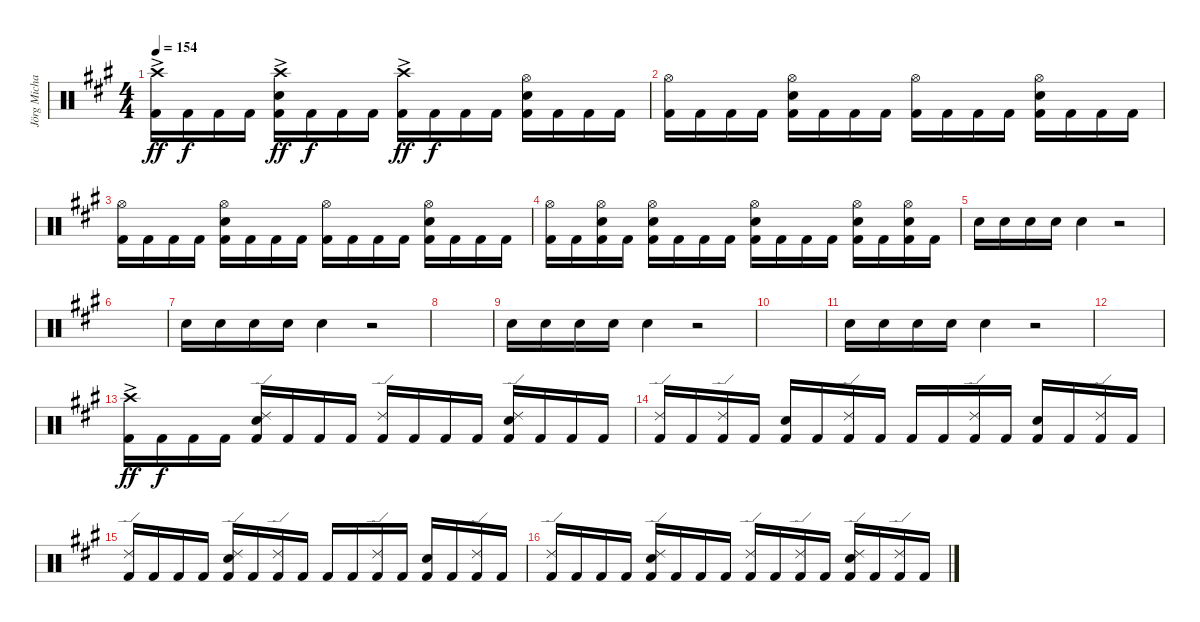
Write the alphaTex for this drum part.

\track ("Jörg Michael" "Jörg Micha") {instrument percussion}
\staff {score}
\articulation defaults
\ts (4 4)
\tempo 154
\clef neutral
\ks a
("Crash high (hit)"{ac} "Kick (hit) 2"{ac}).16{dy ff} "Kick (hit) 2".16{dy f} "Kick (hit) 2".16 "Kick (hit) 2".16 ("Electric Snare (hit)"{ac} "Kick (hit) 2"{ac} "Crash high (hit)"{ac}).16{dy ff} "Kick (hit) 2".16{dy f} "Kick (hit) 2".16 "Kick (hit) 2".16 ("Kick (hit) 2"{ac} "Crash high (hit)"{ac}).16{dy ff} "Kick (hit) 2".16{dy f} "Kick (hit) 2".16 "Kick (hit) 2".16 ("Electric Snare (hit)" "Kick (hit) 2" "Hi-Hat (open)").16 "Kick (hit) 2".16 "Kick (hit) 2".16 "Kick (hit) 2".16 |
("Hi-Hat (open)" "Kick (hit) 2").16 "Kick (hit) 2".16 "Kick (hit) 2".16 "Kick (hit) 2".16 ("Electric Snare (hit)" "Kick (hit) 2" "Hi-Hat (open)").16 "Kick (hit) 2".16 "Kick (hit) 2".16 "Kick (hit) 2".16 ("Kick (hit) 2" "Hi-Hat (open)").16 "Kick (hit) 2".16 "Kick (hit) 2".16 "Kick (hit) 2".16 ("Electric Snare (hit)" "Kick (hit) 2" "Hi-Hat (open)").16 "Kick (hit) 2".16 "Kick (hit) 2".16 "Kick (hit) 2".16 |
("Hi-Hat (open)" "Kick (hit) 2").16 "Kick (hit) 2".16 "Kick (hit) 2".16 "Kick (hit) 2".16 ("Electric Snare (hit)" "Kick (hit) 2" "Hi-Hat (open)").16 "Kick (hit) 2".16 "Kick (hit) 2".16 "Kick (hit) 2".16 ("Kick (hit) 2" "Hi-Hat (open)").16 "Kick (hit) 2".16 "Kick (hit) 2".16 "Kick (hit) 2".16 ("Electric Snare (hit)" "Kick (hit) 2" "Hi-Hat (open)").16 "Kick (hit) 2".16 "Kick (hit) 2".16 "Kick (hit) 2".16 |
("Hi-Hat (open)" "Kick (hit) 2").16 "Kick (hit) 2".16 ("Hi-Hat (open)" "Kick (hit) 2" "Electric Snare (hit)").16 "Kick (hit) 2".16 ("Electric Snare (hit)" "Kick (hit) 2" "Hi-Hat (open)").16 "Kick (hit) 2".16 "Kick (hit) 2".16 "Kick (hit) 2".16 ("Electric Snare (hit)" "Kick (hit) 2" "Hi-Hat (open)").16 "Kick (hit) 2".16 "Kick (hit) 2".16 "Kick (hit) 2".16 ("Electric Snare (hit)" "Kick (hit) 2" "Hi-Hat (open)").16 "Kick (hit) 2".16 ("Electric Snare (hit)" "Kick (hit) 2" "Hi-Hat (open)").16 "Kick (hit) 2".16 |
"Electric Snare (hit)".16 "Electric Snare (hit)".16 "Electric Snare (hit)".16 "Electric Snare (hit)".16 "Electric Snare (hit)".4 r.2 |
|
"Electric Snare (hit)".16 "Electric Snare (hit)".16 "Electric Snare (hit)".16 "Electric Snare (hit)".16 "Electric Snare (hit)".4 r.2 |
|
"Electric Snare (hit)".16 "Electric Snare (hit)".16 "Electric Snare (hit)".16 "Electric Snare (hit)".16 "Electric Snare (hit)".4 r.2 |
|
"Electric Snare (hit)".16 "Electric Snare (hit)".16 "Electric Snare (hit)".16 "Electric Snare (hit)".16 "Electric Snare (hit)".4 r.2 |
|
("Crash high (hit)"{ac} "Kick (hit) 2"{ac}).16{dy ff} "Kick (hit) 2".16{dy f} "Kick (hit) 2".16 "Kick (hit) 2".16 ("Electric Snare (hit)" "Kick (hit) 2" "Ride (edge) 2").16 "Kick (hit) 2".16 "Kick (hit) 2".16 "Kick (hit) 2".16 ("Kick (hit) 2" "Ride (edge) 2").16 "Kick (hit) 2".16 "Kick (hit) 2".16 "Kick (hit) 2".16 ("Electric Snare (hit)" "Kick (hit) 2" "Ride (edge) 2").16 "Kick (hit) 2".16 "Kick (hit) 2".16 "Kick (hit) 2".16 |
("Ride (edge) 2" "Kick (hit) 2").16 "Kick (hit) 2".16 ("Kick (hit) 2" "Ride (edge) 2").16 "Kick (hit) 2".16 ("Electric Snare (hit)" "Kick (hit) 2").16 "Kick (hit) 2".16 ("Kick (hit) 2" "Ride (edge) 2").16 "Kick (hit) 2".16 "Kick (hit) 2".16 "Kick (hit) 2".16 ("Kick (hit) 2" "Ride (edge) 2").16 "Kick (hit) 2".16 ("Electric Snare (hit)" "Kick (hit) 2").16 "Kick (hit) 2".16 ("Kick (hit) 2" "Ride (edge) 2").16 "Kick (hit) 2".16 |
("Ride (edge) 2" "Kick (hit) 2").16 "Kick (hit) 2".16 "Kick (hit) 2".16 "Kick (hit) 2".16 ("Electric Snare (hit)" "Kick (hit) 2" "Ride (edge) 2").16 "Kick (hit) 2".16 ("Kick (hit) 2" "Ride (edge) 2").16 "Kick (hit) 2".16 "Kick (hit) 2".16 "Kick (hit) 2".16 ("Kick (hit) 2" "Ride (edge) 2").16 "Kick (hit) 2".16 ("Electric Snare (hit)" "Kick (hit) 2").16 "Kick (hit) 2".16 ("Kick (hit) 2" "Ride (edge) 2").16 "Kick (hit) 2".16 |
("Ride (edge) 2" "Kick (hit) 2").16 "Kick (hit) 2".16 "Kick (hit) 2".16 "Kick (hit) 2".16 ("Electric Snare (hit)" "Kick (hit) 2" "Ride (edge) 2").16 "Kick (hit) 2".16 "Kick (hit) 2".16 "Kick (hit) 2".16 ("Kick (hit) 2" "Ride (edge) 2").16 "Kick (hit) 2".16 ("Kick (hit) 2" "Ride (edge) 2").16 "Kick (hit) 2".16 ("Electric Snare (hit)" "Kick (hit) 2" "Ride (edge) 2").16 "Kick (hit) 2".16 ("Kick (hit) 2" "Ride (edge) 2").16 "Kick (hit) 2".16
